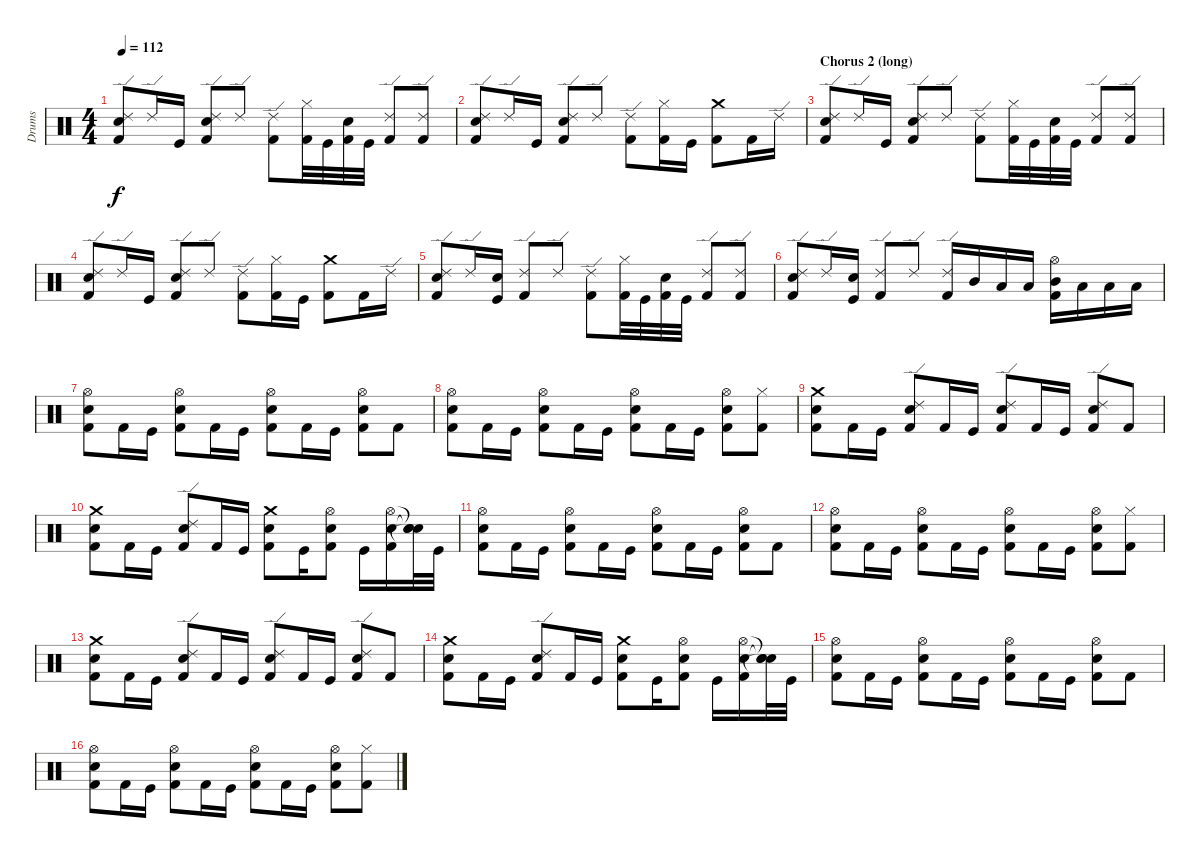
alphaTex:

\track ("Drums" "Drums") {instrument percussion}
\staff {score}
\articulation defaults
\ts (4 4)
\tempo 112
\clef neutral
\ks c
("Ride (edge) 2" "Snare (hit) 2" "Kick (hit) 2").8{dy f} "Ride (edge) 2".16 "Kick (hit)".16 ("Ride (edge) 2" "Snare (hit) 2" "Kick (hit) 2").8 "Ride (edge) 2".8 ("Ride (edge) 2" "Kick (hit) 2").8 ("Hi-Hat (closed)" "Kick (hit) 2").32 "Kick (hit)".32 ("Snare (hit) 2" "Kick (hit) 2").32 "Kick (hit)".32 ("Ride (edge) 2" "Kick (hit) 2").8 ("Ride (edge) 2" "Kick (hit) 2").8 |
("Ride (edge) 2" "Snare (hit) 2" "Kick (hit) 2").8 "Ride (edge) 2".16 "Kick (hit)".16 ("Ride (edge) 2" "Snare (hit) 2" "Kick (hit) 2").8 "Ride (edge) 2".8 ("Ride (edge) 2" "Kick (hit) 2").8 ("Hi-Hat (closed)" "Kick (hit) 2").16 "Kick (hit)".16 ("Crash medium (hit)" "Kick (hit) 2").8 "Kick (hit) 2".16 "Ride (edge) 2".16 |
\section ("" "Chorus 2 (long)")
("Ride (edge) 2" "Snare (hit) 2" "Kick (hit) 2").8 "Ride (edge) 2".16 "Kick (hit)".16 ("Ride (edge) 2" "Snare (hit) 2" "Kick (hit) 2").8 "Ride (edge) 2".8 ("Ride (edge) 2" "Kick (hit) 2").8 ("Hi-Hat (closed)" "Kick (hit) 2").32 "Kick (hit)".32 ("Snare (hit) 2" "Kick (hit) 2").32 "Kick (hit)".32 ("Ride (edge) 2" "Kick (hit) 2").8 ("Ride (edge) 2" "Kick (hit) 2").8 |
("Ride (edge) 2" "Snare (hit) 2" "Kick (hit) 2").8 "Ride (edge) 2".16 "Kick (hit)".16 ("Ride (edge) 2" "Snare (hit) 2" "Kick (hit) 2").8 "Ride (edge) 2".8 ("Ride (edge) 2" "Kick (hit) 2").8 ("Hi-Hat (closed)" "Kick (hit) 2").16 "Kick (hit)".16 ("Crash medium (hit)" "Kick (hit) 2").8 "Kick (hit) 2".16 "Ride (edge) 2".16 |
("Ride (edge) 2" "Snare (hit) 2" "Kick (hit) 2").8 "Ride (edge) 2".16 ("Snare (hit) 2" "Kick (hit)").16 ("Ride (edge) 2" "Kick (hit) 2").8 "Ride (edge) 2".8 ("Ride (edge) 2" "Kick (hit) 2").8 ("Hi-Hat (closed)" "Kick (hit) 2").32 "Kick (hit)".32 ("Snare (hit) 2" "Kick (hit) 2").32 "Kick (hit)".32 ("Ride (edge) 2" "Kick (hit) 2").8 ("Ride (edge) 2" "Kick (hit) 2").8 |
("Ride (edge) 2" "Snare (hit) 2" "Kick (hit) 2").8 "Ride (edge) 2".16 ("Snare (hit) 2" "Kick (hit)").16 ("Ride (edge) 2" "Kick (hit) 2").8 "Ride (edge) 2".8 ("Ride (edge) 2" "Kick (hit) 2").16 "Mid Tom (hit)".16 "Low Tom (hit)".16 "Low Tom (hit)".16 ("Hi-Hat (open)" "Mid Tom (hit)" "Kick (hit) 2").16 "Low Tom (hit)".16 "Low Tom (hit)".16 "Low Tom (hit)".16 |
("Hi-Hat (open)" "Snare (hit) 2" "Kick (hit) 2").8 "Kick (hit) 2".16 "Kick (hit)".16 ("Hi-Hat (open)" "Snare (hit) 2" "Kick (hit) 2").8 "Kick (hit) 2".16 "Kick (hit)".16 ("Hi-Hat (open)" "Snare (hit) 2" "Kick (hit) 2").8 "Kick (hit) 2".16 "Kick (hit)".16 ("Hi-Hat (open)" "Snare (hit) 2" "Kick (hit) 2").8 "Kick (hit) 2".8 |
("Hi-Hat (open)" "Snare (hit) 2" "Kick (hit) 2").8 "Kick (hit) 2".16 "Kick (hit)".16 ("Hi-Hat (open)" "Snare (hit) 2" "Kick (hit) 2").8 "Kick (hit) 2".16 "Kick (hit)".16 ("Hi-Hat (open)" "Snare (hit) 2" "Kick (hit) 2").8 "Kick (hit) 2".16 "Kick (hit)".16 ("Hi-Hat (open)" "Snare (hit) 2" "Kick (hit) 2").8 ("Hi-Hat (closed)" "Kick (hit) 2").8 |
("Crash medium (hit)" "Snare (hit) 2" "Kick (hit) 2").8 "Kick (hit) 2".16 "Kick (hit)".16 ("Ride (edge) 2" "Snare (hit) 2" "Kick (hit) 2").8 "Kick (hit) 2".16 "Kick (hit)".16 ("Ride (edge) 2" "Snare (hit) 2" "Kick (hit) 2").8 "Kick (hit) 2".16 "Kick (hit)".16 ("Ride (edge) 2" "Snare (hit) 2" "Kick (hit) 2").8 "Kick (hit) 2".8 |
("Crash medium (hit)" "Snare (hit) 2" "Kick (hit) 2").8 "Kick (hit) 2".16 "Kick (hit)".16 ("Ride (edge) 2" "Snare (hit) 2" "Kick (hit) 2").8 "Kick (hit) 2".16 "Kick (hit)".16 ("Crash medium (hit)" "Snare (hit) 2" "Kick (hit) 2").8 "Kick (hit)".16 ("Hi-Hat (open)" "Snare (hit) 2" "Kick (hit) 2").8 "Kick (hit)".16 ("Hi-Hat (open)" "Snare (hit) 2" "Kick (hit) 2").16 ("Snare (hit)"{t} "Snare (hit)"{t} "Snare (hit)"{t}).32 "Kick (hit)".32 |
("Hi-Hat (open)" "Snare (hit) 2" "Kick (hit) 2").8 "Kick (hit) 2".16 "Kick (hit)".16 ("Hi-Hat (open)" "Snare (hit) 2" "Kick (hit) 2").8 "Kick (hit) 2".16 "Kick (hit)".16 ("Hi-Hat (open)" "Snare (hit) 2" "Kick (hit) 2").8 "Kick (hit) 2".16 "Kick (hit)".16 ("Hi-Hat (open)" "Snare (hit) 2" "Kick (hit) 2").8 "Kick (hit) 2".8 |
("Hi-Hat (open)" "Snare (hit) 2" "Kick (hit) 2").8 "Kick (hit) 2".16 "Kick (hit)".16 ("Hi-Hat (open)" "Snare (hit) 2" "Kick (hit) 2").8 "Kick (hit) 2".16 "Kick (hit)".16 ("Hi-Hat (open)" "Snare (hit) 2" "Kick (hit) 2").8 "Kick (hit) 2".16 "Kick (hit)".16 ("Hi-Hat (open)" "Snare (hit) 2" "Kick (hit) 2").8 ("Hi-Hat (closed)" "Kick (hit) 2").8 |
("Crash medium (hit)" "Snare (hit) 2" "Kick (hit) 2").8 "Kick (hit) 2".16 "Kick (hit)".16 ("Ride (edge) 2" "Snare (hit) 2" "Kick (hit) 2").8 "Kick (hit) 2".16 "Kick (hit)".16 ("Ride (edge) 2" "Snare (hit) 2" "Kick (hit) 2").8 "Kick (hit) 2".16 "Kick (hit)".16 ("Ride (edge) 2" "Snare (hit) 2" "Kick (hit) 2").8 "Kick (hit) 2".8 |
("Crash medium (hit)" "Snare (hit) 2" "Kick (hit) 2").8 "Kick (hit) 2".16 "Kick (hit)".16 ("Ride (edge) 2" "Snare (hit) 2" "Kick (hit) 2").8 "Kick (hit) 2".16 "Kick (hit)".16 ("Crash medium (hit)" "Snare (hit) 2" "Kick (hit) 2").8 "Kick (hit)".16 ("Hi-Hat (open)" "Snare (hit) 2" "Kick (hit) 2").8 "Kick (hit)".16 ("Hi-Hat (open)" "Snare (hit) 2" "Kick (hit) 2").16 ("Snare (hit)"{t} "Snare (hit)"{t} "Snare (hit)"{t}).32 "Kick (hit)".32 |
("Hi-Hat (open)" "Snare (hit) 2" "Kick (hit) 2").8 "Kick (hit) 2".16 "Kick (hit)".16 ("Hi-Hat (open)" "Snare (hit) 2" "Kick (hit) 2").8 "Kick (hit) 2".16 "Kick (hit)".16 ("Hi-Hat (open)" "Snare (hit) 2" "Kick (hit) 2").8 "Kick (hit) 2".16 "Kick (hit)".16 ("Hi-Hat (open)" "Snare (hit) 2" "Kick (hit) 2").8 "Kick (hit) 2".8 |
("Hi-Hat (open)" "Snare (hit) 2" "Kick (hit) 2").8 "Kick (hit) 2".16 "Kick (hit)".16 ("Hi-Hat (open)" "Snare (hit) 2" "Kick (hit) 2").8 "Kick (hit) 2".16 "Kick (hit)".16 ("Hi-Hat (open)" "Snare (hit) 2" "Kick (hit) 2").8 "Kick (hit) 2".16 "Kick (hit)".16 ("Hi-Hat (open)" "Snare (hit) 2" "Kick (hit) 2").8 ("Hi-Hat (closed)" "Kick (hit) 2").8
